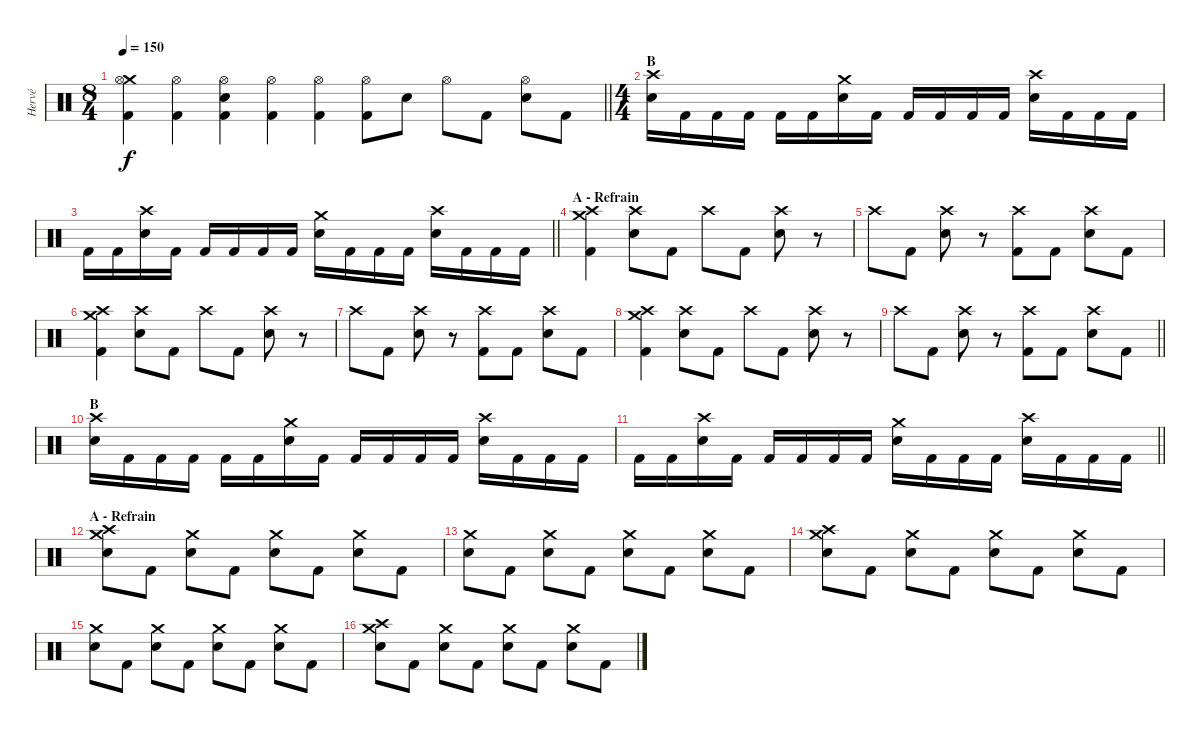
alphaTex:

\track ("Hervé" "Hervé") {instrument percussion}
\staff {score}
\articulation defaults
\ts (8 4)
\tempo 150
\clef neutral
\barLineRight lightlight
\ks c
("Crash medium (hit)" "Hi-Hat (open)" "Kick (hit) 2").4{dy f} ("Hi-Hat (open)" "Kick (hit) 2").4 ("Hi-Hat (open)" "Snare (hit) 2" "Kick (hit) 2").4 ("Hi-Hat (open)" "Kick (hit) 2").4 ("Hi-Hat (open)" "Kick (hit) 2").4 ("Hi-Hat (open)" "Kick (hit) 2").8 "Snare (hit) 2".8 "Hi-Hat (open)".8 "Kick (hit) 2".8 ("Hi-Hat (open)" "Snare (hit) 2").8 "Kick (hit) 2".8 |
\ts (4 4)
\section ("" "B")
("Crash high (hit)" "Snare (hit) 2").16 "Kick (hit) 2".16 "Kick (hit) 2".16 "Kick (hit) 2".16 "Kick (hit) 2".16 "Kick (hit) 2".16 ("Crash medium (hit)" "Snare (hit) 2").16 "Kick (hit) 2".16 "Kick (hit) 2".16 "Kick (hit) 2".16 "Kick (hit) 2".16 "Kick (hit) 2".16 ("Crash high (hit)" "Snare (hit) 2").16 "Kick (hit) 2".16 "Kick (hit) 2".16 "Kick (hit) 2".16 |
\barLineRight lightlight "Kick (hit) 2".16 "Kick (hit) 2".16
("Crash high (hit)" "Snare (hit) 2").16 "Kick (hit) 2".16 "Kick (hit) 2".16 "Kick (hit) 2".16 "Kick (hit) 2".16 "Kick (hit) 2".16 ("Crash medium (hit)" "Snare (hit) 2").16 "Kick (hit) 2".16 "Kick (hit) 2".16 "Kick (hit) 2".16 ("Crash high (hit)" "Snare (hit) 2").16 "Kick (hit) 2".16 "Kick (hit) 2".16 "Kick (hit) 2".16 |
\section ("" "A - Refrain")
("Crash medium (hit)" "Crash high (hit)" "Kick (hit) 2").4 ("Crash high (hit)" "Snare (hit) 2").8 "Kick (hit) 2".8 "Crash high (hit)".8 "Kick (hit) 2".8 ("Crash high (hit)" "Snare (hit) 2").8 r.8 |
"Crash high (hit)".8 "Kick (hit) 2".8 ("Crash high (hit)" "Snare (hit) 2").8 r.8 ("Crash high (hit)" "Kick (hit) 2").8 "Kick (hit) 2".8 ("Crash high (hit)" "Snare (hit) 2").8 "Kick (hit) 2".8 |
("Crash medium (hit)" "Crash high (hit)" "Kick (hit) 2").4 ("Crash high (hit)" "Snare (hit) 2").8 "Kick (hit) 2".8 "Crash high (hit)".8 "Kick (hit) 2".8 ("Crash high (hit)" "Snare (hit) 2").8 r.8 |
"Crash high (hit)".8 "Kick (hit) 2".8 ("Crash high (hit)" "Snare (hit) 2").8 r.8 ("Crash high (hit)" "Kick (hit) 2").8 "Kick (hit) 2".8 ("Crash high (hit)" "Snare (hit) 2").8 "Kick (hit) 2".8 |
("Crash medium (hit)" "Crash high (hit)" "Kick (hit) 2").4 ("Crash high (hit)" "Snare (hit) 2").8 "Kick (hit) 2".8 "Crash high (hit)".8 "Kick (hit) 2".8 ("Crash high (hit)" "Snare (hit) 2").8 r.8 |
\barLineRight lightlight "Crash high (hit)".8 "Kick (hit) 2".8
("Crash high (hit)" "Snare (hit) 2").8 r.8 ("Crash high (hit)" "Kick (hit) 2").8 "Kick (hit) 2".8 ("Crash high (hit)" "Snare (hit) 2").8 "Kick (hit) 2".8 |
\section ("" "B")
("Crash high (hit)" "Snare (hit) 2").16 "Kick (hit) 2".16 "Kick (hit) 2".16 "Kick (hit) 2".16 "Kick (hit) 2".16 "Kick (hit) 2".16 ("Crash medium (hit)" "Snare (hit) 2").16 "Kick (hit) 2".16 "Kick (hit) 2".16 "Kick (hit) 2".16 "Kick (hit) 2".16 "Kick (hit) 2".16 ("Crash high (hit)" "Snare (hit) 2").16 "Kick (hit) 2".16 "Kick (hit) 2".16 "Kick (hit) 2".16 |
\barLineRight lightlight "Kick (hit) 2".16 "Kick (hit) 2".16
("Crash high (hit)" "Snare (hit) 2").16 "Kick (hit) 2".16 "Kick (hit) 2".16 "Kick (hit) 2".16 "Kick (hit) 2".16 "Kick (hit) 2".16 ("Crash medium (hit)" "Snare (hit) 2").16 "Kick (hit) 2".16 "Kick (hit) 2".16 "Kick (hit) 2".16 ("Crash high (hit)" "Snare (hit) 2").16 "Kick (hit) 2".16 "Kick (hit) 2".16 "Kick (hit) 2".16 |
\section ("" "A - Refrain")
("Crash high (hit)" "Crash medium (hit)" "Snare (hit) 2").8 "Kick (hit) 2".8 ("Crash medium (hit)" "Snare (hit) 2").8 "Kick (hit) 2".8 ("Crash medium (hit)" "Snare (hit) 2").8 "Kick (hit) 2".8 ("Crash medium (hit)" "Snare (hit) 2").8 "Kick (hit) 2".8 |
("Crash medium (hit)" "Snare (hit) 2").8 "Kick (hit) 2".8 ("Crash medium (hit)" "Snare (hit) 2").8 "Kick (hit) 2".8 ("Crash medium (hit)" "Snare (hit) 2").8 "Kick (hit) 2".8 ("Crash medium (hit)" "Snare (hit) 2").8 "Kick (hit) 2".8 |
("Crash high (hit)" "Crash medium (hit)" "Snare (hit) 2").8 "Kick (hit) 2".8 ("Crash medium (hit)" "Snare (hit) 2").8 "Kick (hit) 2".8 ("Crash medium (hit)" "Snare (hit) 2").8 "Kick (hit) 2".8 ("Crash medium (hit)" "Snare (hit) 2").8 "Kick (hit) 2".8 |
("Crash medium (hit)" "Snare (hit) 2").8 "Kick (hit) 2".8 ("Crash medium (hit)" "Snare (hit) 2").8 "Kick (hit) 2".8 ("Crash medium (hit)" "Snare (hit) 2").8 "Kick (hit) 2".8 ("Crash medium (hit)" "Snare (hit) 2").8 "Kick (hit) 2".8 |
("Crash high (hit)" "Crash medium (hit)" "Snare (hit) 2").8 "Kick (hit) 2".8 ("Crash medium (hit)" "Snare (hit) 2").8 "Kick (hit) 2".8 ("Crash medium (hit)" "Snare (hit) 2").8 "Kick (hit) 2".8 ("Crash medium (hit)" "Snare (hit) 2").8 "Kick (hit) 2".8
